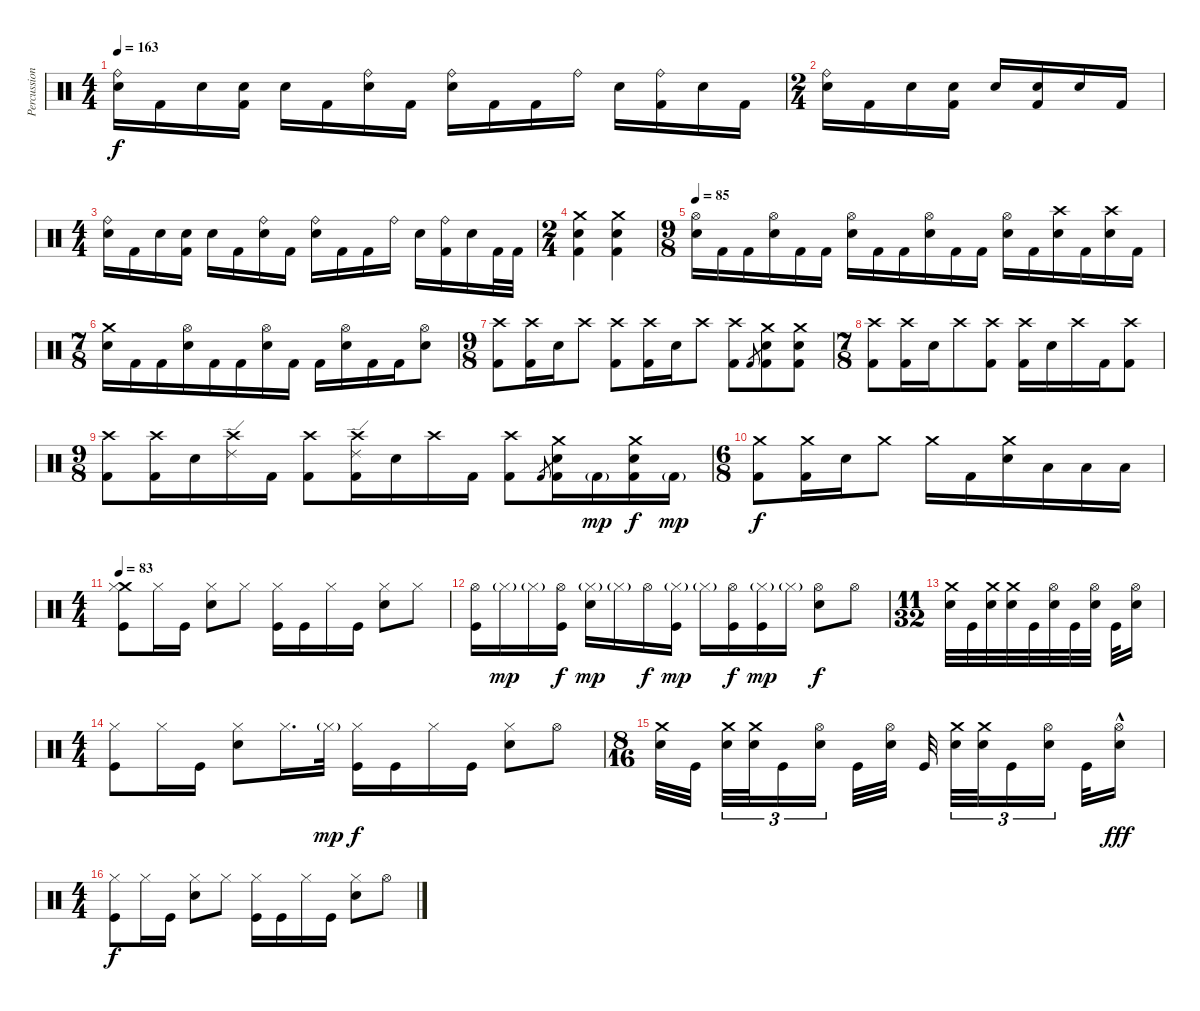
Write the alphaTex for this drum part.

\track ("Percussion" "Percussion") {instrument percussion}
\staff {score}
\articulation defaults
\ts (4 4)
\tempo 163
\clef neutral
\ks c
("Ride (bell)" "Electric Snare (hit)").16{dy f} "Kick (hit) 2".16 "Electric Snare (hit)".16 ("Electric Snare (hit)" "Kick (hit) 2").16 "Electric Snare (hit)".16 "Kick (hit) 2".16 ("Ride (bell)" "Electric Snare (hit)").16 "Kick (hit) 2".16 ("Ride (bell)" "Electric Snare (hit)").16 "Kick (hit) 2".16 "Kick (hit) 2".16 "Ride (bell)".16 "Electric Snare (hit)".16 ("Ride (bell)" "Kick (hit) 2").16 "Electric Snare (hit)".16 "Kick (hit) 2".16 |
\ts (2 4)
("Ride (bell)" "Electric Snare (hit)").16 "Kick (hit) 2".16 "Electric Snare (hit)".16 ("Electric Snare (hit)" "Kick (hit) 2").16 "Electric Snare (hit)".16 ("Electric Snare (hit)" "Kick (hit) 2").16 "Electric Snare (hit)".16 "Kick (hit) 2".16 |
\ts (4 4)
("Ride (bell)" "Electric Snare (hit)").16 "Kick (hit) 2".16 "Electric Snare (hit)".16 ("Electric Snare (hit)" "Kick (hit) 2").16 "Electric Snare (hit)".16 "Kick (hit) 2".16 ("Ride (bell)" "Electric Snare (hit)").16 "Kick (hit) 2".16 ("Ride (bell)" "Electric Snare (hit)").16 "Kick (hit) 2".16 "Kick (hit) 2".16 "Ride (bell)".16 "Electric Snare (hit)".16 ("Ride (bell)" "Kick (hit) 2").16 "Electric Snare (hit)".16 "Kick (hit) 2".32 "Kick (hit) 2".32 |
\ts (2 4)
("Crash medium (hit)" "Electric Snare (hit)" "Kick (hit) 2").4 ("Crash medium (hit)" "Electric Snare (hit)" "Kick (hit) 2").4 |
\ts (9 8)
\tempo 85
("Hi-Hat (open)" "Electric Snare (hit)").16 "Kick (hit) 2".16 "Kick (hit) 2".16 ("Hi-Hat (open)" "Electric Snare (hit)").16 "Kick (hit) 2".16 "Kick (hit) 2".16 ("Hi-Hat (open)" "Electric Snare (hit)").16 "Kick (hit) 2".16 "Kick (hit) 2".16 ("Hi-Hat (open)" "Electric Snare (hit)").16 "Kick (hit) 2".16 "Kick (hit) 2".16 ("Hi-Hat (open)" "Electric Snare (hit)").16 "Kick (hit) 2".16 ("Crash high (hit)" "Electric Snare (hit)").16 "Kick (hit) 2".16 ("Crash high (hit)" "Electric Snare (hit)").16 "Kick (hit) 2".16 |
\ts (7 8)
("Crash medium (hit)" "Electric Snare (hit)").16 "Kick (hit) 2".16 "Kick (hit) 2".16 ("Hi-Hat (open)" "Electric Snare (hit)").16 "Kick (hit) 2".16 "Kick (hit) 2".16 ("Hi-Hat (open)" "Electric Snare (hit)").16 "Kick (hit) 2".16 "Kick (hit) 2".16 ("Hi-Hat (open)" "Electric Snare (hit)").16 "Kick (hit) 2".16 "Kick (hit) 2".16 ("Hi-Hat (open)" "Electric Snare (hit)").8 |
\ts (9 8)
("Crash high (hit)" "Kick (hit) 2").8 ("Crash high (hit)" "Kick (hit) 2").16 "Electric Snare (hit)".16 "Crash high (hit)".8 ("Crash high (hit)" "Kick (hit) 2").8 ("Crash high (hit)" "Kick (hit) 2").16 "Electric Snare (hit)".16 "Crash high (hit)".8 ("Crash high (hit)" "Kick (hit) 2").8 "Kick (hit) 2".8{gr} ("Crash medium (hit)" "Electric Snare (hit)" "Kick (hit) 2").8 ("Crash medium (hit)" "Electric Snare (hit)" "Kick (hit) 2").8 |
\ts (7 8)
("Crash high (hit)" "Kick (hit) 2").8 ("Crash high (hit)" "Kick (hit) 2").16 "Electric Snare (hit)".16 "Crash high (hit)".8 ("Crash high (hit)" "Kick (hit) 2").8 ("Crash high (hit)" "Kick (hit) 2").16 "Electric Snare (hit)".16 "Crash high (hit)".16 "Kick (hit) 2".16 ("Crash high (hit)" "Kick (hit) 2").8 |
\ts (9 8)
("Crash high (hit)" "Kick (hit) 2").8 ("Crash high (hit)" "Kick (hit) 2").16 "Electric Snare (hit)".16 ("Crash high (hit)" "Ride (edge) 2").16 "Kick (hit) 2".16 ("Crash high (hit)" "Kick (hit) 2").8 ("Crash high (hit)" "Ride (edge) 2" "Kick (hit) 2").16 "Electric Snare (hit)".16 "Crash high (hit)".16 "Kick (hit) 2".16 ("Crash high (hit)" "Kick (hit) 2").8 "Kick (hit) 2".8{gr} ("Crash medium (hit)" "Electric Snare (hit)" "Kick (hit) 2").16 "Kick (hit) 2"{g}.16{dy mp} ("Crash medium (hit)" "Electric Snare (hit)" "Kick (hit) 2").16{dy f} "Kick (hit) 2"{g}.16{dy mp} |
\ts (6 8)
("Crash medium (hit)" "Kick (hit) 2").8{dy f} ("Crash medium (hit)" "Kick (hit) 2").16 "Electric Snare (hit)".16 "Crash medium (hit)".8 "Crash medium (hit)".16 "Kick (hit) 2".16 ("Crash medium (hit)" "Electric Snare (hit)").16 "Low Tom (hit)".16 "Low Tom (hit)".16 "Low Tom (hit)".16 |
\ts (4 4)
\tempo 83
("Crash medium (hit)" "Hi-Hat (closed)" "Kick (hit)").8 "Hi-Hat (closed)".16 "Kick (hit)".16 ("Hi-Hat (closed)" "Snare (hit) 2").8 "Hi-Hat (closed)".8 ("Hi-Hat (closed)" "Kick (hit)").16 "Kick (hit)".16 "Hi-Hat (closed)".16 "Kick (hit)".16 ("Hi-Hat (closed)" "Snare (hit) 2").8 "Hi-Hat (closed)".8 |
("Hi-Hat (open)" "Kick (hit)").16 "Hi-Hat (closed)"{g}.16{dy mp} "Hi-Hat (closed)"{g}.16 ("Hi-Hat (open)" "Kick (hit)").16{dy f} ("Hi-Hat (closed)"{g} "Snare (hit) 2").16{dy mp} "Hi-Hat (closed)"{g}.16 "Hi-Hat (open)".16{dy f} ("Hi-Hat (closed)"{g} "Kick (hit)").16{dy mp} "Hi-Hat (closed)"{g}.16 ("Hi-Hat (open)" "Kick (hit)").16{dy f} ("Hi-Hat (closed)"{g} "Kick (hit)").16{dy mp} "Hi-Hat (closed)"{g}.16 ("Hi-Hat (open)" "Snare (hit) 2").8{dy f} "Hi-Hat (open)".8 |
\ts (11 32)
("Crash medium (hit)" "Electric Snare (hit)").32 "Kick (hit)".32 ("Crash medium (hit)" "Electric Snare (hit)").32 ("Crash medium (hit)" "Electric Snare (hit)").32 "Kick (hit)".32 ("Hi-Hat (open)" "Electric Snare (hit)").32 "Kick (hit)".32 ("Hi-Hat (open)" "Electric Snare (hit)").32 "Kick (hit)".32 ("Hi-Hat (open)" "Electric Snare (hit)").16 |
\ts (4 4)
("Hi-Hat (closed)" "Kick (hit)").8 "Hi-Hat (closed)".16 "Kick (hit)".16 ("Hi-Hat (closed)" "Snare (hit) 2").8 "Hi-Hat (closed)".16{d} "Hi-Hat (closed)"{g}.32{dy mp} ("Hi-Hat (closed)" "Kick (hit)").16{dy f} "Kick (hit)".16 "Hi-Hat (closed)".16 "Kick (hit)".16 ("Hi-Hat (closed)" "Snare (hit) 2").8 "Hi-Hat (open)".8 |
\ts (8 16)
("Crash medium (hit)" "Electric Snare (hit)").32 "Kick (hit)".32 ("Crash medium (hit)" "Electric Snare (hit)").32{tu (3 2)} ("Crash medium (hit)" "Electric Snare (hit)").32{tu (3 2)} "Kick (hit)".16{tu (3 2)} ("Hi-Hat (open)" "Electric Snare (hit)").16{tu (3 2)} "Kick (hit)".32 ("Hi-Hat (open)" "Electric Snare (hit)").32 "Kick (hit)".32{beam splitsecondary} ("Crash medium (hit)" "Electric Snare (hit)").32{tu (3 2)} ("Crash medium (hit)" "Electric Snare (hit)").32{tu (3 2)} "Kick (hit)".16{tu (3 2)} ("Hi-Hat (open)" "Electric Snare (hit)").16{tu (3 2)} "Kick (hit)".32 ("Hi-Hat (open)"{hac} "Electric Snare (hit)").16{dy fff} |
\ts (4 4)
("Hi-Hat (closed)" "Kick (hit)").8{dy f} "Hi-Hat (closed)".16 "Kick (hit)".16 ("Hi-Hat (closed)" "Snare (hit) 2").8 "Hi-Hat (closed)".8 ("Hi-Hat (closed)" "Kick (hit)").16 "Kick (hit)".16 "Hi-Hat (closed)".16 "Kick (hit)".16 ("Hi-Hat (closed)" "Snare (hit) 2").8 "Hi-Hat (open)".8
